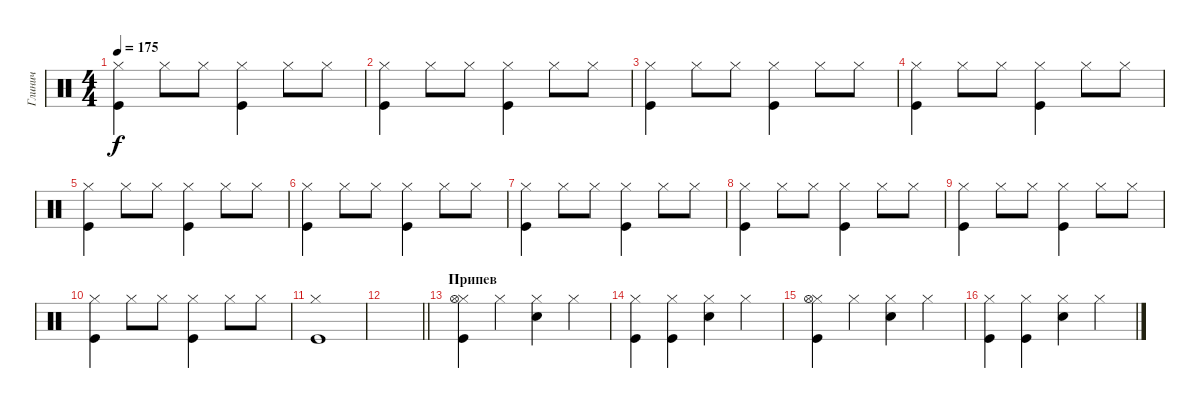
\track ("Глинич" "Глинич") {instrument percussion}
\staff {score}
\articulation defaults
\ts (4 4)
\tempo 175
\clef neutral
\ks c
("Hi-Hat (closed)" "Kick (hit)").4{dy f} "Hi-Hat (closed)".8 "Hi-Hat (closed)".8 ("Hi-Hat (closed)" "Kick (hit)").4 "Hi-Hat (closed)".8 "Hi-Hat (closed)".8 |
("Hi-Hat (closed)" "Kick (hit)").4 "Hi-Hat (closed)".8 "Hi-Hat (closed)".8 ("Hi-Hat (closed)" "Kick (hit)").4 "Hi-Hat (closed)".8 "Hi-Hat (closed)".8 |
("Hi-Hat (closed)" "Kick (hit)").4 "Hi-Hat (closed)".8 "Hi-Hat (closed)".8 ("Hi-Hat (closed)" "Kick (hit)").4 "Hi-Hat (closed)".8 "Hi-Hat (closed)".8 |
("Hi-Hat (closed)" "Kick (hit)").4 "Hi-Hat (closed)".8 "Hi-Hat (closed)".8 ("Hi-Hat (closed)" "Kick (hit)").4 "Hi-Hat (closed)".8 "Hi-Hat (closed)".8 |
("Hi-Hat (closed)" "Kick (hit)").4 "Hi-Hat (closed)".8 "Hi-Hat (closed)".8 ("Hi-Hat (closed)" "Kick (hit)").4 "Hi-Hat (closed)".8 "Hi-Hat (closed)".8 |
("Hi-Hat (closed)" "Kick (hit)").4 "Hi-Hat (closed)".8 "Hi-Hat (closed)".8 ("Hi-Hat (closed)" "Kick (hit)").4 "Hi-Hat (closed)".8 "Hi-Hat (closed)".8 |
("Hi-Hat (closed)" "Kick (hit)").4 "Hi-Hat (closed)".8 "Hi-Hat (closed)".8 ("Hi-Hat (closed)" "Kick (hit)").4 "Hi-Hat (closed)".8 "Hi-Hat (closed)".8 |
("Hi-Hat (closed)" "Kick (hit)").4 "Hi-Hat (closed)".8 "Hi-Hat (closed)".8 ("Hi-Hat (closed)" "Kick (hit)").4 "Hi-Hat (closed)".8 "Hi-Hat (closed)".8 |
("Hi-Hat (closed)" "Kick (hit)").4 "Hi-Hat (closed)".8 "Hi-Hat (closed)".8 ("Hi-Hat (closed)" "Kick (hit)").4 "Hi-Hat (closed)".8 "Hi-Hat (closed)".8 |
("Hi-Hat (closed)" "Kick (hit)").4 "Hi-Hat (closed)".8 "Hi-Hat (closed)".8 ("Hi-Hat (closed)" "Kick (hit)").4 "Hi-Hat (closed)".8 "Hi-Hat (closed)".8 |
("Hi-Hat (closed)" "Kick (hit)").1 |
\barLineRight lightlight
|
\section ("" "Припев")
("Hi-Hat (closed)" "Kick (hit)" "Hi-Hat (open)").4 "Hi-Hat (closed)".4 ("Hi-Hat (closed)" "Snare (hit) 2").4 "Hi-Hat (closed)".4 |
("Hi-Hat (closed)" "Kick (hit)").4 ("Hi-Hat (closed)" "Kick (hit)").4 ("Hi-Hat (closed)" "Snare (hit) 2").4 "Hi-Hat (closed)".4 |
("Hi-Hat (closed)" "Kick (hit)" "Hi-Hat (open)").4 "Hi-Hat (closed)".4 ("Hi-Hat (closed)" "Snare (hit) 2").4 "Hi-Hat (closed)".4 |
("Hi-Hat (closed)" "Kick (hit)").4 ("Hi-Hat (closed)" "Kick (hit)").4 ("Hi-Hat (closed)" "Snare (hit) 2").4 "Hi-Hat (closed)".4
